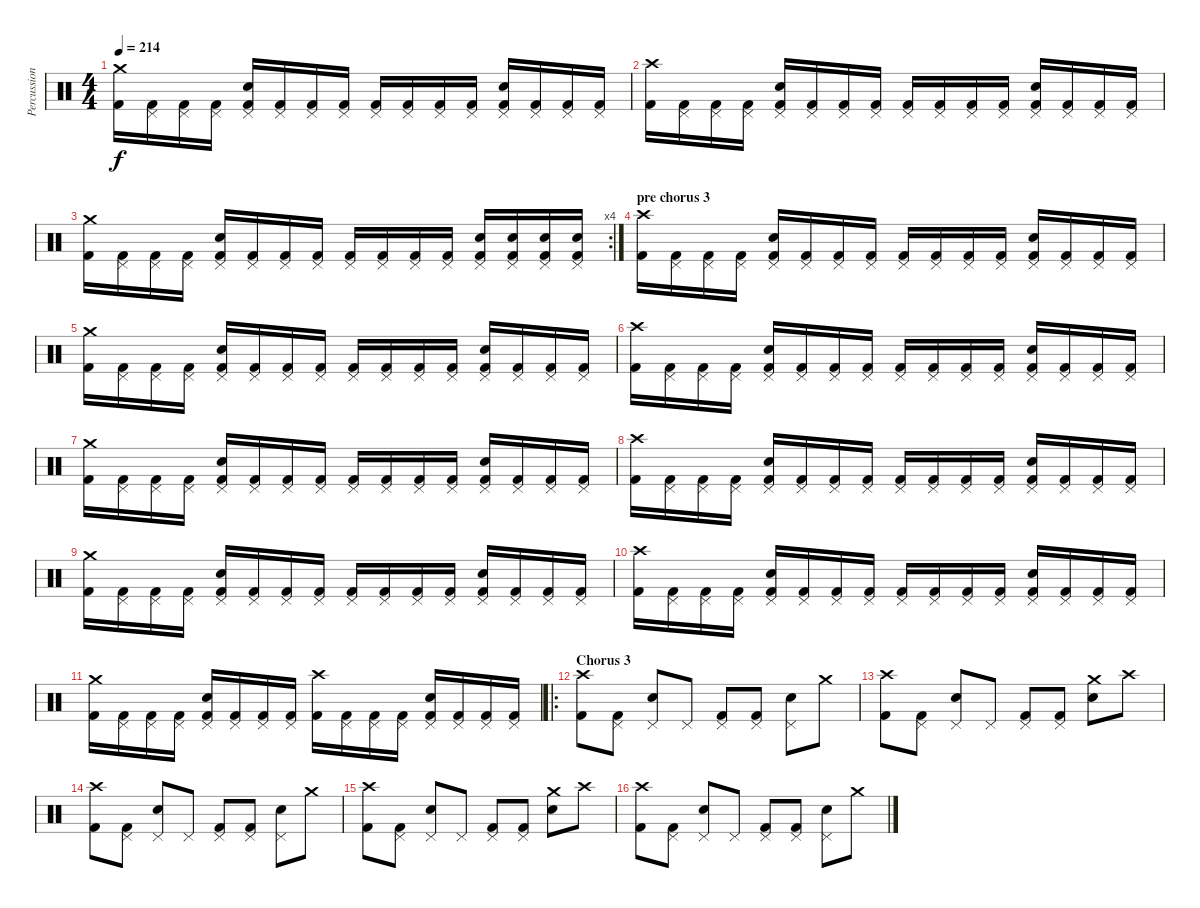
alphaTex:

\track ("Percussion" "Percussion") {instrument percussion}
\staff {score}
\articulation defaults
\ts (4 4)
\tempo 214
\clef neutral
\ks c
("Crash medium (hit)" "Kick (hit) 2").16{dy f} ("Pedal Hi-Hat (hit)" "Kick (hit) 2").16 ("Pedal Hi-Hat (hit)" "Kick (hit) 2").16 ("Pedal Hi-Hat (hit)" "Kick (hit) 2").16 ("Pedal Hi-Hat (hit)" "Snare (hit) 2" "Kick (hit) 2").16 ("Pedal Hi-Hat (hit)" "Kick (hit) 2").16 ("Pedal Hi-Hat (hit)" "Kick (hit) 2").16 ("Pedal Hi-Hat (hit)" "Kick (hit) 2").16 ("Pedal Hi-Hat (hit)" "Kick (hit) 2").16 ("Pedal Hi-Hat (hit)" "Kick (hit) 2").16 ("Pedal Hi-Hat (hit)" "Kick (hit) 2").16 ("Pedal Hi-Hat (hit)" "Kick (hit) 2").16 ("Pedal Hi-Hat (hit)" "Snare (hit) 2" "Kick (hit) 2").16 ("Pedal Hi-Hat (hit)" "Kick (hit) 2").16 ("Pedal Hi-Hat (hit)" "Kick (hit) 2").16 ("Pedal Hi-Hat (hit)" "Kick (hit) 2").16 |
("Crash high (hit)" "Kick (hit) 2").16 ("Pedal Hi-Hat (hit)" "Kick (hit) 2").16 ("Pedal Hi-Hat (hit)" "Kick (hit) 2").16 ("Pedal Hi-Hat (hit)" "Kick (hit) 2").16 ("Pedal Hi-Hat (hit)" "Snare (hit) 2" "Kick (hit) 2").16 ("Pedal Hi-Hat (hit)" "Kick (hit) 2").16 ("Pedal Hi-Hat (hit)" "Kick (hit) 2").16 ("Pedal Hi-Hat (hit)" "Kick (hit) 2").16 ("Pedal Hi-Hat (hit)" "Kick (hit) 2").16 ("Pedal Hi-Hat (hit)" "Kick (hit) 2").16 ("Pedal Hi-Hat (hit)" "Kick (hit) 2").16 ("Pedal Hi-Hat (hit)" "Kick (hit) 2").16 ("Pedal Hi-Hat (hit)" "Snare (hit) 2" "Kick (hit) 2").16 ("Pedal Hi-Hat (hit)" "Kick (hit) 2").16 ("Pedal Hi-Hat (hit)" "Kick (hit) 2").16 ("Pedal Hi-Hat (hit)" "Kick (hit) 2").16 |
\rc 4
("Crash medium (hit)" "Kick (hit) 2").16 ("Pedal Hi-Hat (hit)" "Kick (hit) 2").16 ("Pedal Hi-Hat (hit)" "Kick (hit) 2").16 ("Pedal Hi-Hat (hit)" "Kick (hit) 2").16 ("Pedal Hi-Hat (hit)" "Snare (hit) 2" "Kick (hit) 2").16 ("Pedal Hi-Hat (hit)" "Kick (hit) 2").16 ("Pedal Hi-Hat (hit)" "Kick (hit) 2").16 ("Pedal Hi-Hat (hit)" "Kick (hit) 2").16 ("Pedal Hi-Hat (hit)" "Kick (hit) 2").16 ("Pedal Hi-Hat (hit)" "Kick (hit) 2").16 ("Pedal Hi-Hat (hit)" "Kick (hit) 2").16 ("Pedal Hi-Hat (hit)" "Kick (hit) 2").16 ("Pedal Hi-Hat (hit)" "Snare (hit) 2" "Kick (hit) 2").16 ("Pedal Hi-Hat (hit)" "Snare (hit) 2" "Kick (hit) 2").16 ("Pedal Hi-Hat (hit)" "Snare (hit) 2" "Kick (hit) 2").16 ("Pedal Hi-Hat (hit)" "Snare (hit) 2" "Kick (hit) 2").16 |
\section ("" "pre chorus 3")
("Crash high (hit)" "Kick (hit) 2").16 ("Pedal Hi-Hat (hit)" "Kick (hit) 2").16 ("Pedal Hi-Hat (hit)" "Kick (hit) 2").16 ("Pedal Hi-Hat (hit)" "Kick (hit) 2").16 ("Pedal Hi-Hat (hit)" "Snare (hit) 2" "Kick (hit) 2").16 ("Pedal Hi-Hat (hit)" "Kick (hit) 2").16 ("Pedal Hi-Hat (hit)" "Kick (hit) 2").16 ("Pedal Hi-Hat (hit)" "Kick (hit) 2").16 ("Pedal Hi-Hat (hit)" "Kick (hit) 2").16 ("Pedal Hi-Hat (hit)" "Kick (hit) 2").16 ("Pedal Hi-Hat (hit)" "Kick (hit) 2").16 ("Pedal Hi-Hat (hit)" "Kick (hit) 2").16 ("Pedal Hi-Hat (hit)" "Snare (hit) 2" "Kick (hit) 2").16 ("Pedal Hi-Hat (hit)" "Kick (hit) 2").16 ("Pedal Hi-Hat (hit)" "Kick (hit) 2").16 ("Pedal Hi-Hat (hit)" "Kick (hit) 2").16 |
("Crash medium (hit)" "Kick (hit) 2").16 ("Pedal Hi-Hat (hit)" "Kick (hit) 2").16 ("Pedal Hi-Hat (hit)" "Kick (hit) 2").16 ("Pedal Hi-Hat (hit)" "Kick (hit) 2").16 ("Pedal Hi-Hat (hit)" "Snare (hit) 2" "Kick (hit) 2").16 ("Pedal Hi-Hat (hit)" "Kick (hit) 2").16 ("Pedal Hi-Hat (hit)" "Kick (hit) 2").16 ("Pedal Hi-Hat (hit)" "Kick (hit) 2").16 ("Pedal Hi-Hat (hit)" "Kick (hit) 2").16 ("Pedal Hi-Hat (hit)" "Kick (hit) 2").16 ("Pedal Hi-Hat (hit)" "Kick (hit) 2").16 ("Pedal Hi-Hat (hit)" "Kick (hit) 2").16 ("Pedal Hi-Hat (hit)" "Snare (hit) 2" "Kick (hit) 2").16 ("Pedal Hi-Hat (hit)" "Kick (hit) 2").16 ("Pedal Hi-Hat (hit)" "Kick (hit) 2").16 ("Pedal Hi-Hat (hit)" "Kick (hit) 2").16 |
("Crash high (hit)" "Kick (hit) 2").16 ("Pedal Hi-Hat (hit)" "Kick (hit) 2").16 ("Pedal Hi-Hat (hit)" "Kick (hit) 2").16 ("Pedal Hi-Hat (hit)" "Kick (hit) 2").16 ("Pedal Hi-Hat (hit)" "Snare (hit) 2" "Kick (hit) 2").16 ("Pedal Hi-Hat (hit)" "Kick (hit) 2").16 ("Pedal Hi-Hat (hit)" "Kick (hit) 2").16 ("Pedal Hi-Hat (hit)" "Kick (hit) 2").16 ("Pedal Hi-Hat (hit)" "Kick (hit) 2").16 ("Pedal Hi-Hat (hit)" "Kick (hit) 2").16 ("Pedal Hi-Hat (hit)" "Kick (hit) 2").16 ("Pedal Hi-Hat (hit)" "Kick (hit) 2").16 ("Pedal Hi-Hat (hit)" "Snare (hit) 2" "Kick (hit) 2").16 ("Pedal Hi-Hat (hit)" "Kick (hit) 2").16 ("Pedal Hi-Hat (hit)" "Kick (hit) 2").16 ("Pedal Hi-Hat (hit)" "Kick (hit) 2").16 |
("Crash medium (hit)" "Kick (hit) 2").16 ("Pedal Hi-Hat (hit)" "Kick (hit) 2").16 ("Pedal Hi-Hat (hit)" "Kick (hit) 2").16 ("Pedal Hi-Hat (hit)" "Kick (hit) 2").16 ("Pedal Hi-Hat (hit)" "Snare (hit) 2" "Kick (hit) 2").16 ("Pedal Hi-Hat (hit)" "Kick (hit) 2").16 ("Pedal Hi-Hat (hit)" "Kick (hit) 2").16 ("Pedal Hi-Hat (hit)" "Kick (hit) 2").16 ("Pedal Hi-Hat (hit)" "Kick (hit) 2").16 ("Pedal Hi-Hat (hit)" "Kick (hit) 2").16 ("Pedal Hi-Hat (hit)" "Kick (hit) 2").16 ("Pedal Hi-Hat (hit)" "Kick (hit) 2").16 ("Pedal Hi-Hat (hit)" "Snare (hit) 2" "Kick (hit) 2").16 ("Pedal Hi-Hat (hit)" "Kick (hit) 2").16 ("Pedal Hi-Hat (hit)" "Kick (hit) 2").16 ("Pedal Hi-Hat (hit)" "Kick (hit) 2").16 |
("Crash high (hit)" "Kick (hit) 2").16 ("Pedal Hi-Hat (hit)" "Kick (hit) 2").16 ("Pedal Hi-Hat (hit)" "Kick (hit) 2").16 ("Pedal Hi-Hat (hit)" "Kick (hit) 2").16 ("Pedal Hi-Hat (hit)" "Snare (hit) 2" "Kick (hit) 2").16 ("Pedal Hi-Hat (hit)" "Kick (hit) 2").16 ("Pedal Hi-Hat (hit)" "Kick (hit) 2").16 ("Pedal Hi-Hat (hit)" "Kick (hit) 2").16 ("Pedal Hi-Hat (hit)" "Kick (hit) 2").16 ("Pedal Hi-Hat (hit)" "Kick (hit) 2").16 ("Pedal Hi-Hat (hit)" "Kick (hit) 2").16 ("Pedal Hi-Hat (hit)" "Kick (hit) 2").16 ("Pedal Hi-Hat (hit)" "Snare (hit) 2" "Kick (hit) 2").16 ("Pedal Hi-Hat (hit)" "Kick (hit) 2").16 ("Pedal Hi-Hat (hit)" "Kick (hit) 2").16 ("Pedal Hi-Hat (hit)" "Kick (hit) 2").16 |
("Crash medium (hit)" "Kick (hit) 2").16 ("Pedal Hi-Hat (hit)" "Kick (hit) 2").16 ("Pedal Hi-Hat (hit)" "Kick (hit) 2").16 ("Pedal Hi-Hat (hit)" "Kick (hit) 2").16 ("Pedal Hi-Hat (hit)" "Snare (hit) 2" "Kick (hit) 2").16 ("Pedal Hi-Hat (hit)" "Kick (hit) 2").16 ("Pedal Hi-Hat (hit)" "Kick (hit) 2").16 ("Pedal Hi-Hat (hit)" "Kick (hit) 2").16 ("Pedal Hi-Hat (hit)" "Kick (hit) 2").16 ("Pedal Hi-Hat (hit)" "Kick (hit) 2").16 ("Pedal Hi-Hat (hit)" "Kick (hit) 2").16 ("Pedal Hi-Hat (hit)" "Kick (hit) 2").16 ("Pedal Hi-Hat (hit)" "Snare (hit) 2" "Kick (hit) 2").16 ("Pedal Hi-Hat (hit)" "Kick (hit) 2").16 ("Pedal Hi-Hat (hit)" "Kick (hit) 2").16 ("Pedal Hi-Hat (hit)" "Kick (hit) 2").16 |
("Crash high (hit)" "Kick (hit) 2").16 ("Pedal Hi-Hat (hit)" "Kick (hit) 2").16 ("Pedal Hi-Hat (hit)" "Kick (hit) 2").16 ("Pedal Hi-Hat (hit)" "Kick (hit) 2").16 ("Pedal Hi-Hat (hit)" "Snare (hit) 2" "Kick (hit) 2").16 ("Pedal Hi-Hat (hit)" "Kick (hit) 2").16 ("Pedal Hi-Hat (hit)" "Kick (hit) 2").16 ("Pedal Hi-Hat (hit)" "Kick (hit) 2").16 ("Pedal Hi-Hat (hit)" "Kick (hit) 2").16 ("Pedal Hi-Hat (hit)" "Kick (hit) 2").16 ("Pedal Hi-Hat (hit)" "Kick (hit) 2").16 ("Pedal Hi-Hat (hit)" "Kick (hit) 2").16 ("Pedal Hi-Hat (hit)" "Snare (hit) 2" "Kick (hit) 2").16 ("Pedal Hi-Hat (hit)" "Kick (hit) 2").16 ("Pedal Hi-Hat (hit)" "Kick (hit) 2").16 ("Pedal Hi-Hat (hit)" "Kick (hit) 2").16 |
("Crash medium (hit)" "Kick (hit) 2").16 ("Pedal Hi-Hat (hit)" "Kick (hit) 2").16 ("Pedal Hi-Hat (hit)" "Kick (hit) 2").16 ("Pedal Hi-Hat (hit)" "Kick (hit) 2").16 ("Pedal Hi-Hat (hit)" "Snare (hit) 2" "Kick (hit) 2").16 ("Pedal Hi-Hat (hit)" "Kick (hit) 2").16 ("Pedal Hi-Hat (hit)" "Kick (hit) 2").16 ("Pedal Hi-Hat (hit)" "Kick (hit) 2").16 ("Crash high (hit)" "Kick (hit) 2").16 ("Pedal Hi-Hat (hit)" "Kick (hit) 2").16 ("Pedal Hi-Hat (hit)" "Kick (hit) 2").16 ("Pedal Hi-Hat (hit)" "Kick (hit) 2").16 ("Pedal Hi-Hat (hit)" "Snare (hit) 2" "Kick (hit) 2").16 ("Pedal Hi-Hat (hit)" "Kick (hit) 2").16 ("Pedal Hi-Hat (hit)" "Kick (hit) 2").16 ("Pedal Hi-Hat (hit)" "Kick (hit) 2").16 |
\ro
\section ("" "Chorus 3")
("Crash high (hit)" "Kick (hit) 2").8 ("Pedal Hi-Hat (hit)" "Kick (hit) 2").8 ("Pedal Hi-Hat (hit)" "Snare (hit) 2").8 "Pedal Hi-Hat (hit)".8 ("Pedal Hi-Hat (hit)" "Kick (hit) 2").8 ("Pedal Hi-Hat (hit)" "Kick (hit) 2").8 ("Pedal Hi-Hat (hit)" "Snare (hit) 2").8 "Crash medium (hit)".8 |
("Crash high (hit)" "Kick (hit) 2").8 ("Pedal Hi-Hat (hit)" "Kick (hit) 2").8 ("Pedal Hi-Hat (hit)" "Snare (hit) 2").8 "Pedal Hi-Hat (hit)".8 ("Pedal Hi-Hat (hit)" "Kick (hit) 2").8 ("Pedal Hi-Hat (hit)" "Kick (hit) 2").8 ("Crash medium (hit)" "Snare (hit) 2").8 "Crash high (hit)".8 |
("Crash high (hit)" "Kick (hit) 2").8 ("Pedal Hi-Hat (hit)" "Kick (hit) 2").8 ("Pedal Hi-Hat (hit)" "Snare (hit) 2").8 "Pedal Hi-Hat (hit)".8 ("Pedal Hi-Hat (hit)" "Kick (hit) 2").8 ("Pedal Hi-Hat (hit)" "Kick (hit) 2").8 ("Pedal Hi-Hat (hit)" "Snare (hit) 2").8 "Crash medium (hit)".8 |
("Crash high (hit)" "Kick (hit) 2").8 ("Pedal Hi-Hat (hit)" "Kick (hit) 2").8 ("Pedal Hi-Hat (hit)" "Snare (hit) 2").8 "Pedal Hi-Hat (hit)".8 ("Pedal Hi-Hat (hit)" "Kick (hit) 2").8 ("Pedal Hi-Hat (hit)" "Kick (hit) 2").8 ("Crash medium (hit)" "Snare (hit) 2").8 "Crash high (hit)".8 |
("Crash high (hit)" "Kick (hit) 2").8 ("Pedal Hi-Hat (hit)" "Kick (hit) 2").8 ("Pedal Hi-Hat (hit)" "Snare (hit) 2").8 "Pedal Hi-Hat (hit)".8 ("Pedal Hi-Hat (hit)" "Kick (hit) 2").8 ("Pedal Hi-Hat (hit)" "Kick (hit) 2").8 ("Pedal Hi-Hat (hit)" "Snare (hit) 2").8 "Crash medium (hit)".8
